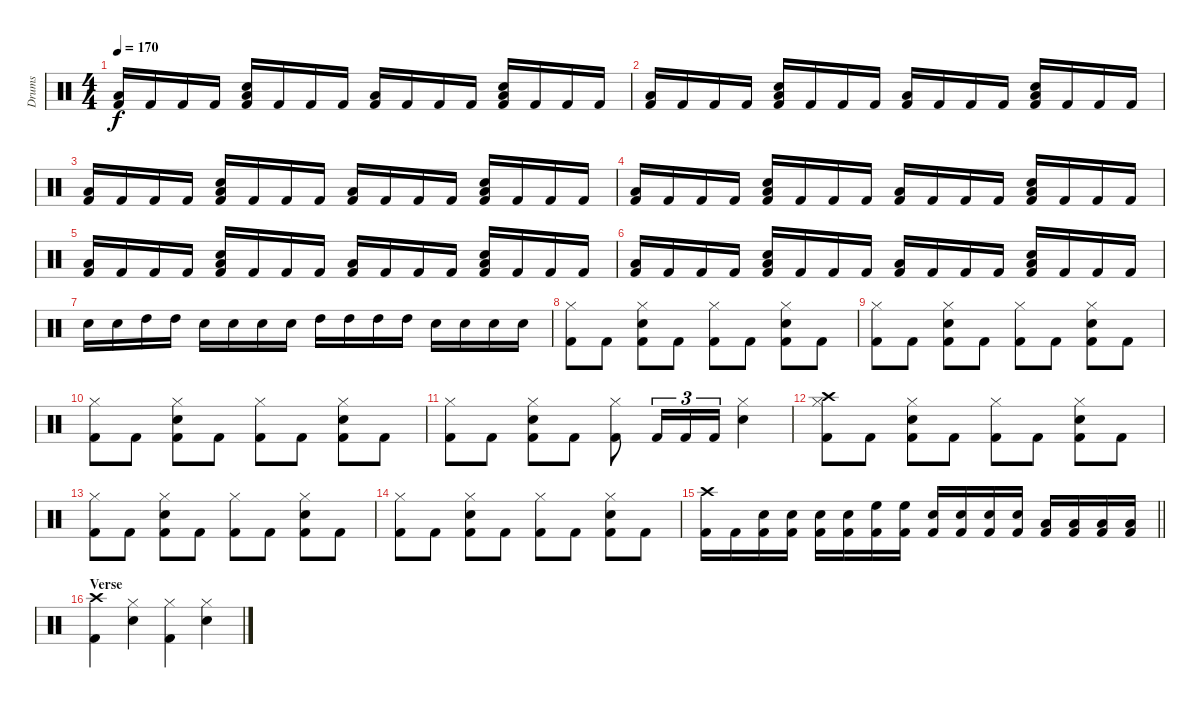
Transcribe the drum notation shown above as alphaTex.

\track ("Drums" "Drums") {instrument percussion}
\staff {score}
\articulation defaults
\ts (4 4)
\tempo 170
\clef neutral
\ks c
("Low Tom (hit)" "Kick (hit) 2").16{dy f} "Kick (hit) 2".16 "Kick (hit) 2".16 "Kick (hit) 2".16 ("Low Tom (hit)" "Snare (hit) 2" "Kick (hit) 2").16 "Kick (hit) 2".16 "Kick (hit) 2".16 "Kick (hit) 2".16 ("Low Tom (hit)" "Kick (hit) 2").16 "Kick (hit) 2".16 "Kick (hit) 2".16 "Kick (hit) 2".16 ("Low Tom (hit)" "Snare (hit) 2" "Kick (hit) 2").16 "Kick (hit) 2".16 "Kick (hit) 2".16 "Kick (hit) 2".16 |
("Low Tom (hit)" "Kick (hit) 2").16 "Kick (hit) 2".16 "Kick (hit) 2".16 "Kick (hit) 2".16 ("Low Tom (hit)" "Snare (hit) 2" "Kick (hit) 2").16 "Kick (hit) 2".16 "Kick (hit) 2".16 "Kick (hit) 2".16 ("Low Tom (hit)" "Kick (hit) 2").16 "Kick (hit) 2".16 "Kick (hit) 2".16 "Kick (hit) 2".16 ("Low Tom (hit)" "Snare (hit) 2" "Kick (hit) 2").16 "Kick (hit) 2".16 "Kick (hit) 2".16 "Kick (hit) 2".16 |
("Low Tom (hit)" "Kick (hit) 2").16 "Kick (hit) 2".16 "Kick (hit) 2".16 "Kick (hit) 2".16 ("Low Tom (hit)" "Snare (hit) 2" "Kick (hit) 2").16 "Kick (hit) 2".16 "Kick (hit) 2".16 "Kick (hit) 2".16 ("Low Tom (hit)" "Kick (hit) 2").16 "Kick (hit) 2".16 "Kick (hit) 2".16 "Kick (hit) 2".16 ("Low Tom (hit)" "Snare (hit) 2" "Kick (hit) 2").16 "Kick (hit) 2".16 "Kick (hit) 2".16 "Kick (hit) 2".16 |
("Low Tom (hit)" "Kick (hit) 2").16 "Kick (hit) 2".16 "Kick (hit) 2".16 "Kick (hit) 2".16 ("Low Tom (hit)" "Snare (hit) 2" "Kick (hit) 2").16 "Kick (hit) 2".16 "Kick (hit) 2".16 "Kick (hit) 2".16 ("Low Tom (hit)" "Kick (hit) 2").16 "Kick (hit) 2".16 "Kick (hit) 2".16 "Kick (hit) 2".16 ("Low Tom (hit)" "Snare (hit) 2" "Kick (hit) 2").16 "Kick (hit) 2".16 "Kick (hit) 2".16 "Kick (hit) 2".16 |
("Low Tom (hit)" "Kick (hit) 2").16 "Kick (hit) 2".16 "Kick (hit) 2".16 "Kick (hit) 2".16 ("Low Tom (hit)" "Snare (hit) 2" "Kick (hit) 2").16 "Kick (hit) 2".16 "Kick (hit) 2".16 "Kick (hit) 2".16 ("Low Tom (hit)" "Kick (hit) 2").16 "Kick (hit) 2".16 "Kick (hit) 2".16 "Kick (hit) 2".16 ("Low Tom (hit)" "Snare (hit) 2" "Kick (hit) 2").16 "Kick (hit) 2".16 "Kick (hit) 2".16 "Kick (hit) 2".16 |
("Low Tom (hit)" "Kick (hit) 2").16 "Kick (hit) 2".16 "Kick (hit) 2".16 "Kick (hit) 2".16 ("Low Tom (hit)" "Snare (hit) 2" "Kick (hit) 2").16 "Kick (hit) 2".16 "Kick (hit) 2".16 "Kick (hit) 2".16 ("Low Tom (hit)" "Kick (hit) 2").16 "Kick (hit) 2".16 "Kick (hit) 2".16 "Kick (hit) 2".16 ("Low Tom (hit)" "Snare (hit) 2" "Kick (hit) 2").16 "Kick (hit) 2".16 "Kick (hit) 2".16 "Kick (hit) 2".16 |
"Snare (hit) 2".16 "Snare (hit) 2".16 "High Tom (hit)".16 "High Tom (hit)".16 "Snare (hit) 2".16 "Snare (hit) 2".16 "Snare (hit) 2".16 "Snare (hit) 2".16 "High Tom (hit)".16 "High Tom (hit)".16 "High Tom (hit)".16 "High Tom (hit)".16 "Snare (hit) 2".16 "Snare (hit) 2".16 "Snare (hit) 2".16 "Snare (hit) 2".16 |
("Hi-Hat (closed)" "Kick (hit) 2").8 "Kick (hit) 2".8 ("Hi-Hat (closed)" "Snare (hit) 2" "Kick (hit) 2").8 "Kick (hit) 2".8 ("Hi-Hat (closed)" "Kick (hit) 2").8 "Kick (hit) 2".8 ("Hi-Hat (closed)" "Snare (hit) 2" "Kick (hit) 2").8 "Kick (hit) 2".8 |
("Hi-Hat (closed)" "Kick (hit) 2").8 "Kick (hit) 2".8 ("Hi-Hat (closed)" "Snare (hit) 2" "Kick (hit) 2").8 "Kick (hit) 2".8 ("Hi-Hat (closed)" "Kick (hit) 2").8 "Kick (hit) 2".8 ("Hi-Hat (closed)" "Snare (hit) 2" "Kick (hit) 2").8 "Kick (hit) 2".8 |
("Hi-Hat (closed)" "Kick (hit) 2").8 "Kick (hit) 2".8 ("Hi-Hat (closed)" "Snare (hit) 2" "Kick (hit) 2").8 "Kick (hit) 2".8 ("Hi-Hat (closed)" "Kick (hit) 2").8 "Kick (hit) 2".8 ("Hi-Hat (closed)" "Snare (hit) 2" "Kick (hit) 2").8 "Kick (hit) 2".8 |
("Hi-Hat (closed)" "Kick (hit) 2").8 "Kick (hit) 2".8 ("Hi-Hat (closed)" "Snare (hit) 2" "Kick (hit) 2").8 "Kick (hit) 2".8 ("Hi-Hat (closed)" "Kick (hit) 2").8 "Kick (hit) 2".16{tu (3 2)} "Kick (hit) 2".16{tu (3 2)} "Kick (hit) 2".16{tu (3 2)} ("Hi-Hat (closed)" "Snare (hit) 2").4 |
("Crash high (hit)" "Hi-Hat (closed)" "Kick (hit) 2").8 "Kick (hit) 2".8 ("Hi-Hat (closed)" "Snare (hit) 2" "Kick (hit) 2").8 "Kick (hit) 2".8 ("Hi-Hat (closed)" "Kick (hit) 2").8 "Kick (hit) 2".8 ("Hi-Hat (closed)" "Snare (hit) 2" "Kick (hit) 2").8 "Kick (hit) 2".8 |
("Hi-Hat (closed)" "Kick (hit) 2").8 "Kick (hit) 2".8 ("Hi-Hat (closed)" "Snare (hit) 2" "Kick (hit) 2").8 "Kick (hit) 2".8 ("Hi-Hat (closed)" "Kick (hit) 2").8 "Kick (hit) 2".8 ("Hi-Hat (closed)" "Snare (hit) 2" "Kick (hit) 2").8 "Kick (hit) 2".8 |
("Hi-Hat (closed)" "Kick (hit) 2").8 "Kick (hit) 2".8 ("Hi-Hat (closed)" "Snare (hit) 2" "Kick (hit) 2").8 "Kick (hit) 2".8 ("Hi-Hat (closed)" "Kick (hit) 2").8 "Kick (hit) 2".8 ("Hi-Hat (closed)" "Snare (hit) 2" "Kick (hit) 2").8 "Kick (hit) 2".8 |
\barLineRight lightlight
("Crash high (hit)" "Kick (hit) 2").16 "Kick (hit) 2".16 ("Snare (hit) 2" "Kick (hit) 2").16 ("Snare (hit) 2" "Kick (hit) 2").16 ("Snare (hit) 2" "Kick (hit) 2").16 ("Snare (hit) 2" "Kick (hit) 2").16 ("High Floor Tom (hit)" "Kick (hit) 2").16 ("High Floor Tom (hit)" "Kick (hit) 2").16 ("Snare (hit) 2" "Kick (hit) 2").16 ("Snare (hit) 2" "Kick (hit) 2").16 ("Snare (hit) 2" "Kick (hit) 2").16 ("Snare (hit) 2" "Kick (hit) 2").16 ("Low Tom (hit)" "Kick (hit) 2").16 ("Low Tom (hit)" "Kick (hit) 2").16 ("Low Tom (hit)" "Kick (hit) 2").16 ("Low Tom (hit)" "Kick (hit) 2").16 |
\section ("" "Verse")
("Crash high (hit)" "Kick (hit) 2").4 ("Hi-Hat (closed)" "Snare (hit) 2").4 ("Hi-Hat (closed)" "Kick (hit) 2").4 ("Hi-Hat (closed)" "Snare (hit) 2").4
